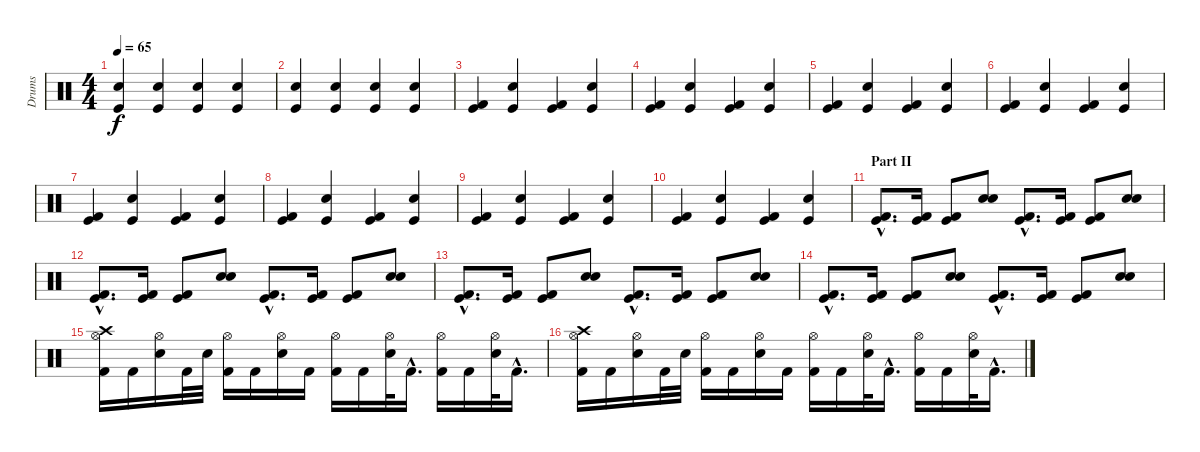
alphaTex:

\track ("Drums" "Drums") {instrument percussion}
\staff {score}
\articulation defaults
\ts (4 4)
\tempo 65
\clef neutral
\ks c
("Kick (hit)" "Snare (hit) 2").4{dy f} ("Kick (hit)" "Snare (hit) 2").4 ("Kick (hit)" "Snare (hit) 2").4 ("Kick (hit)" "Snare (hit) 2").4 |
("Kick (hit)" "Snare (hit) 2").4 ("Kick (hit)" "Snare (hit) 2").4 ("Kick (hit)" "Snare (hit) 2").4 ("Kick (hit)" "Snare (hit) 2").4 |
("Kick (hit)" "Kick (hit) 2").4 ("Kick (hit)" "Snare (hit) 2").4 ("Kick (hit)" "Kick (hit) 2").4 ("Kick (hit)" "Snare (hit) 2").4 |
("Kick (hit)" "Kick (hit) 2").4 ("Kick (hit)" "Snare (hit) 2").4 ("Kick (hit)" "Kick (hit) 2").4 ("Kick (hit)" "Snare (hit) 2").4 |
("Kick (hit)" "Kick (hit) 2").4 ("Kick (hit)" "Snare (hit) 2").4 ("Kick (hit)" "Kick (hit) 2").4 ("Kick (hit)" "Snare (hit) 2").4 |
("Kick (hit)" "Kick (hit) 2").4 ("Kick (hit)" "Snare (hit) 2").4 ("Kick (hit)" "Kick (hit) 2").4 ("Kick (hit)" "Snare (hit) 2").4 |
("Kick (hit)" "Kick (hit) 2").4 ("Kick (hit)" "Snare (hit) 2").4 ("Kick (hit)" "Kick (hit) 2").4 ("Kick (hit)" "Snare (hit) 2").4 |
("Kick (hit)" "Kick (hit) 2").4 ("Kick (hit)" "Snare (hit) 2").4 ("Kick (hit)" "Kick (hit) 2").4 ("Kick (hit)" "Snare (hit) 2").4 |
("Kick (hit)" "Kick (hit) 2").4 ("Kick (hit)" "Snare (hit) 2").4 ("Kick (hit)" "Kick (hit) 2").4 ("Kick (hit)" "Snare (hit) 2").4 |
("Kick (hit)" "Kick (hit) 2").4 ("Kick (hit)" "Snare (hit) 2").4 ("Kick (hit)" "Kick (hit) 2").4 ("Kick (hit)" "Snare (hit) 2").4 |
\section ("" "Part II")
("Kick (hit)"{hac} "Kick (hit) 2"{hac}).8{d} ("Kick (hit)" "Kick (hit) 2").16 ("Kick (hit)" "Kick (hit) 2").8 ("Electric Snare (hit)" "Snare (hit) 2").8 ("Kick (hit)"{hac} "Kick (hit) 2"{hac}).8{d} ("Kick (hit)" "Kick (hit) 2").16 ("Kick (hit)" "Kick (hit) 2").8 ("Electric Snare (hit)" "Snare (hit) 2").8 |
("Kick (hit)"{hac} "Kick (hit) 2"{hac}).8{d} ("Kick (hit)" "Kick (hit) 2").16 ("Kick (hit)" "Kick (hit) 2").8 ("Electric Snare (hit)" "Snare (hit) 2").8 ("Kick (hit)"{hac} "Kick (hit) 2"{hac}).8{d} ("Kick (hit)" "Kick (hit) 2").16 ("Kick (hit)" "Kick (hit) 2").8 ("Electric Snare (hit)" "Snare (hit) 2").8 |
("Kick (hit)"{hac} "Kick (hit) 2"{hac}).8{d} ("Kick (hit)" "Kick (hit) 2").16 ("Kick (hit)" "Kick (hit) 2").8 ("Electric Snare (hit)" "Snare (hit) 2").8 ("Kick (hit)"{hac} "Kick (hit) 2"{hac}).8{d} ("Kick (hit)" "Kick (hit) 2").16 ("Kick (hit)" "Kick (hit) 2").8 ("Electric Snare (hit)" "Snare (hit) 2").8 |
("Kick (hit)"{hac} "Kick (hit) 2"{hac}).8{d} ("Kick (hit)" "Kick (hit) 2").16 ("Kick (hit)" "Kick (hit) 2").8 ("Electric Snare (hit)" "Snare (hit) 2").8 ("Kick (hit)"{hac} "Kick (hit) 2"{hac}).8{d} ("Kick (hit)" "Kick (hit) 2").16 ("Kick (hit)" "Kick (hit) 2").8 ("Electric Snare (hit)" "Snare (hit) 2").8 |
("Crash high (hit)" "Hi-Hat (open)" "Kick (hit) 2").16 "Kick (hit) 2".16 ("Hi-Hat (open)" "Snare (hit) 2").16 "Kick (hit) 2".32 "Snare (hit) 2".32 ("Hi-Hat (open)" "Kick (hit) 2").16 "Kick (hit) 2".16 ("Hi-Hat (open)" "Snare (hit) 2").16 "Kick (hit) 2".16 ("Hi-Hat (open)" "Kick (hit) 2").16 "Kick (hit) 2".16 ("Hi-Hat (open)" "Snare (hit) 2").32 "Kick (hit) 2"{hac}.16{d} ("Hi-Hat (open)" "Kick (hit) 2").16 "Kick (hit) 2".16 ("Hi-Hat (open)" "Snare (hit) 2").32 "Kick (hit) 2"{hac}.16{d} |
("Crash high (hit)" "Hi-Hat (open)" "Kick (hit) 2").16 "Kick (hit) 2".16 ("Hi-Hat (open)" "Snare (hit) 2").16 "Kick (hit) 2".32 "Snare (hit) 2".32 ("Hi-Hat (open)" "Kick (hit) 2").16 "Kick (hit) 2".16 ("Hi-Hat (open)" "Snare (hit) 2").16 "Kick (hit) 2".16 ("Hi-Hat (open)" "Kick (hit) 2").16 "Kick (hit) 2".16 ("Hi-Hat (open)" "Snare (hit) 2").32 "Kick (hit) 2"{hac}.16{d} ("Hi-Hat (open)" "Kick (hit) 2").16 "Kick (hit) 2".16 ("Hi-Hat (open)" "Snare (hit) 2").32 "Kick (hit) 2"{hac}.16{d}
